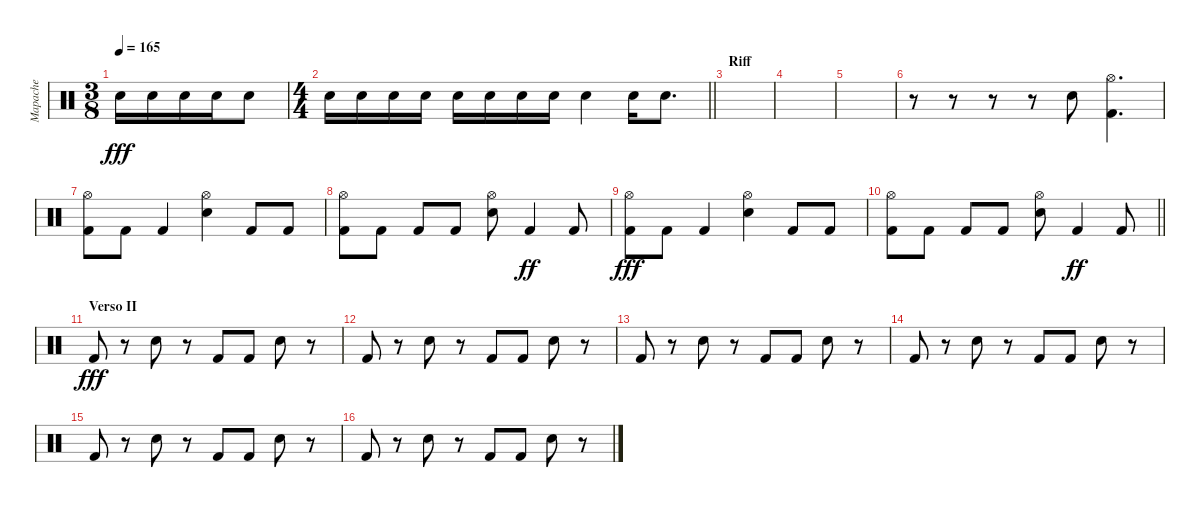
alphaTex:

\track ("Mapache" "Mapache") {instrument percussion}
\staff
\articulation defaults
\ts (3 8)
\tempo 165
\clef neutral
\ks c "Electric Snare (hit)".16{dy fff} "Electric Snare (hit)".16 "Electric Snare (hit)".16 "Electric Snare (hit)".16 "Electric Snare (hit)".8
|
\ts (4 4)
\barLineRight lightlight "Electric Snare (hit)".16 "Electric Snare (hit)".16 "Electric Snare (hit)".16 "Electric Snare (hit)".16 "Electric Snare (hit)".16 "Electric Snare (hit)".16 "Electric Snare (hit)".16 "Electric Snare (hit)".16 "Electric Snare (hit)".4 "Electric Snare (hit)".16 "Electric Snare (hit)".8{d}
|
\section ("" "Riff")
|
|
|
r.8 r.8 r.8 r.8 "Electric Snare (hit)".8 ("Hi-Hat (open)" "Kick (hit) 2").4{d} |
("Hi-Hat (open)" "Kick (hit) 2").8 "Kick (hit) 2".8 "Kick (hit) 2".4 ("Hi-Hat (open)" "Electric Snare (hit)").4 "Kick (hit) 2".8 "Kick (hit) 2".8 |
("Hi-Hat (open)" "Kick (hit) 2").8 "Kick (hit) 2".8 "Kick (hit) 2".8 "Kick (hit) 2".8 ("Hi-Hat (open)" "Electric Snare (hit)").8 "Kick (hit) 2".4{dy ff} "Kick (hit) 2".8 |
("Hi-Hat (open)" "Kick (hit) 2").8{dy fff} "Kick (hit) 2".8 "Kick (hit) 2".4 ("Hi-Hat (open)" "Electric Snare (hit)").4 "Kick (hit) 2".8 "Kick (hit) 2".8 |
\barLineRight lightlight
("Hi-Hat (open)" "Kick (hit) 2").8 "Kick (hit) 2".8 "Kick (hit) 2".8 "Kick (hit) 2".8 ("Hi-Hat (open)" "Electric Snare (hit)").8 "Kick (hit) 2".4{dy ff} "Kick (hit) 2".8 |
\section ("" "Verso II")
"Kick (hit) 2".8{dy fff} r.8 "Electric Snare (hit)".8 r.8 "Kick (hit) 2".8 "Kick (hit) 2".8 "Electric Snare (hit)".8 r.8 |
"Kick (hit) 2".8 r.8 "Electric Snare (hit)".8 r.8 "Kick (hit) 2".8 "Kick (hit) 2".8 "Electric Snare (hit)".8 r.8 |
"Kick (hit) 2".8 r.8 "Electric Snare (hit)".8 r.8 "Kick (hit) 2".8 "Kick (hit) 2".8 "Electric Snare (hit)".8 r.8 |
"Kick (hit) 2".8 r.8 "Electric Snare (hit)".8 r.8 "Kick (hit) 2".8 "Kick (hit) 2".8 "Electric Snare (hit)".8 r.8 |
"Kick (hit) 2".8 r.8 "Electric Snare (hit)".8 r.8 "Kick (hit) 2".8 "Kick (hit) 2".8 "Electric Snare (hit)".8 r.8 |
"Kick (hit) 2".8 r.8 "Electric Snare (hit)".8 r.8 "Kick (hit) 2".8 "Kick (hit) 2".8 "Electric Snare (hit)".8 r.8
